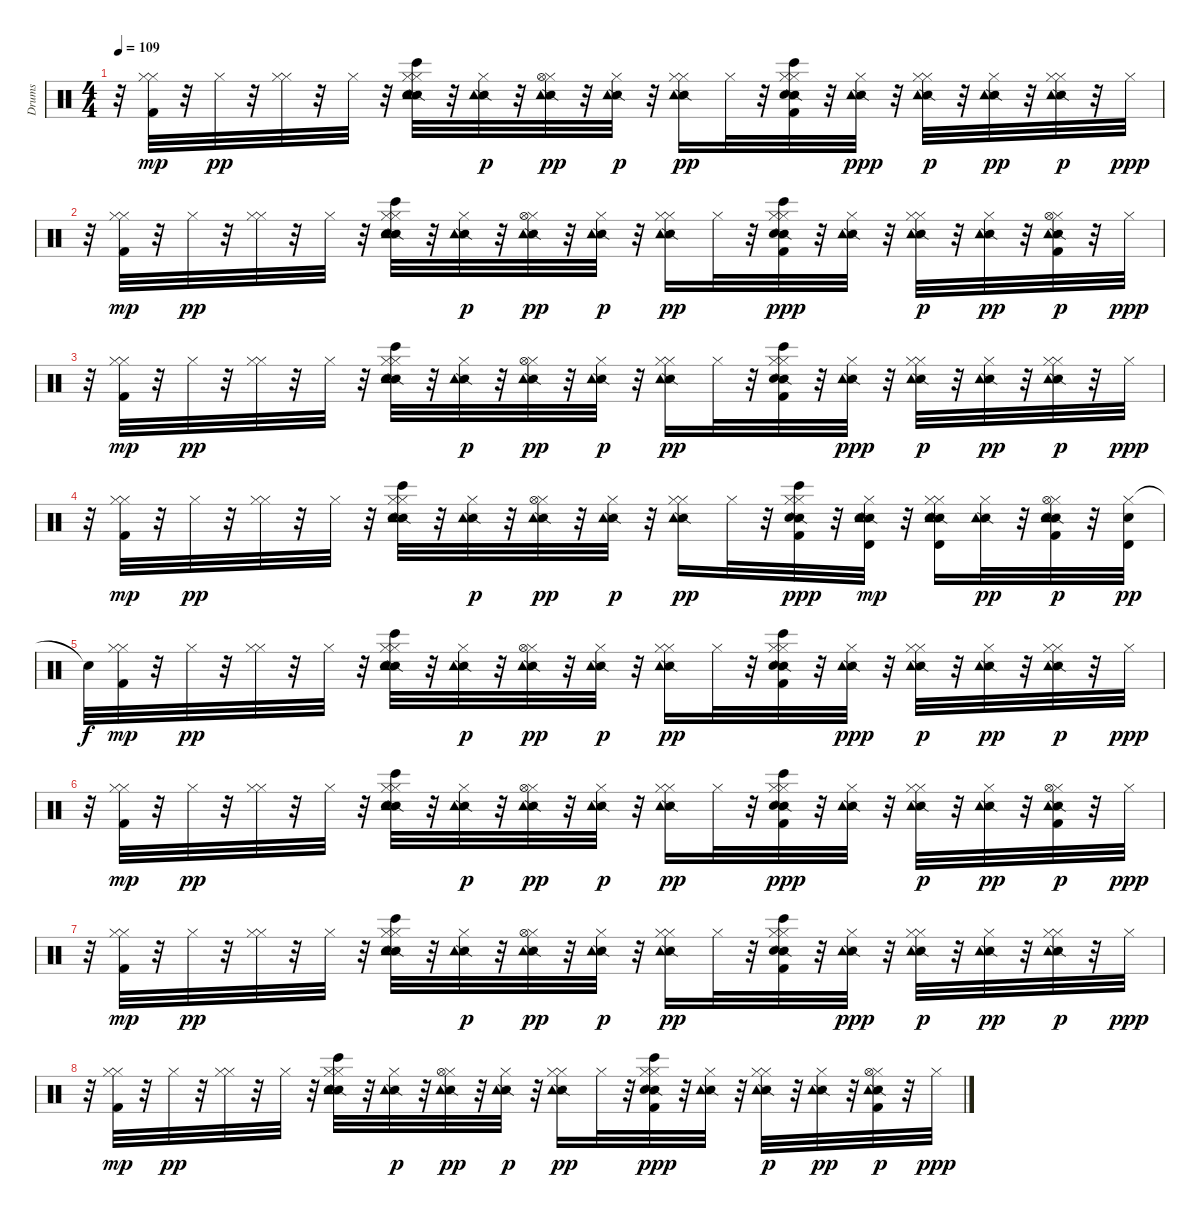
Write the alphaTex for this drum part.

\track ("Drums" "Drums") {instrument percussion}
\staff {score}
\articulation defaults
\ts (4 4)
\tempo 109
\clef neutral
\ks c
r.32{dy ppp} ("Kick (hit) 2" "Hi-Hat (closed)" "Hi-Hat (closed)").32{dy mp} r.32 "Hi-Hat (closed)".32{dy pp} r.32 ("Hi-Hat (closed)" "Hi-Hat (closed)").32 r.32 "Hi-Hat (closed)".32 r.32 ("Hi-Hat (closed)" "Bongo High (hit)" "Snare (side stick) 2" "Electric Snare (hit)" "Hi-Hat (closed)" "Tambourine (hit)").32 r.32 ("Hi-Hat (closed)" "Snare (side stick) 2" "Tambourine (hit)").32{dy p} r.32 ("Hi-Hat (closed)" "Snare (side stick) 2" "Hi-Hat (open)" "Tambourine (hit)").32{dy pp} r.32 ("Hi-Hat (closed)" "Snare (side stick) 2" "Tambourine (hit)").32{dy p} r.32 ("Hi-Hat (closed)" "Snare (side stick) 2" "Hi-Hat (closed)" "Tambourine (hit)").16{dy pp} "Hi-Hat (closed)".32 r.32 ("Kick (hit) 2" "Hi-Hat (closed)" "Bongo High (hit)" "Snare (side stick) 2" "Electric Snare (hit)" "Hi-Hat (closed)").32 r.32 ("Hi-Hat (closed)" "Snare (side stick) 2" "Tambourine (hit)").32{dy ppp} r.32 ("Hi-Hat (closed)" "Snare (side stick) 2" "Hi-Hat (closed)" "Tambourine (hit)").32{dy p} r.32 ("Hi-Hat (closed)" "Snare (side stick) 2" "Tambourine (hit)").32{dy pp} r.32 ("Hi-Hat (closed)" "Snare (side stick) 2" "Hi-Hat (closed)" "Tambourine (hit)").32{dy p} r.32 "Hi-Hat (closed)".32{dy ppp} |
r.32 ("Kick (hit) 2" "Hi-Hat (closed)" "Hi-Hat (closed)").32{dy mp} r.32 "Hi-Hat (closed)".32{dy pp} r.32 ("Hi-Hat (closed)" "Hi-Hat (closed)").32 r.32 "Hi-Hat (closed)".32 r.32 ("Hi-Hat (closed)" "Bongo High (hit)" "Snare (side stick) 2" "Electric Snare (hit)" "Hi-Hat (closed)" "Tambourine (hit)").32 r.32 ("Hi-Hat (closed)" "Snare (side stick) 2" "Tambourine (hit)").32{dy p} r.32 ("Hi-Hat (closed)" "Snare (side stick) 2" "Hi-Hat (open)" "Tambourine (hit)").32{dy pp} r.32 ("Hi-Hat (closed)" "Snare (side stick) 2" "Tambourine (hit)").32{dy p} r.32 ("Hi-Hat (closed)" "Snare (side stick) 2" "Hi-Hat (closed)" "Tambourine (hit)").16{dy pp} "Hi-Hat (closed)".32 r.32 ("Kick (hit) 2" "Hi-Hat (closed)" "Bongo High (hit)" "Snare (side stick) 2" "Electric Snare (hit)" "Hi-Hat (closed)").32{dy ppp} r.32 ("Hi-Hat (closed)" "Snare (side stick) 2" "Tambourine (hit)").32 r.32 ("Hi-Hat (closed)" "Snare (side stick) 2" "Hi-Hat (closed)" "Tambourine (hit)").32{dy p} r.32 ("Hi-Hat (closed)" "Snare (side stick) 2" "Tambourine (hit)").32{dy pp} r.32 ("Kick (hit) 2" "Hi-Hat (closed)" "Snare (side stick) 2" "Hi-Hat (open)" "Tambourine (hit)").32{dy p} r.32 "Hi-Hat (closed)".32{dy ppp} |
r.32 ("Kick (hit) 2" "Hi-Hat (closed)" "Hi-Hat (closed)").32{dy mp} r.32 "Hi-Hat (closed)".32{dy pp} r.32 ("Hi-Hat (closed)" "Hi-Hat (closed)").32 r.32 "Hi-Hat (closed)".32 r.32 ("Hi-Hat (closed)" "Bongo High (hit)" "Snare (side stick) 2" "Electric Snare (hit)" "Hi-Hat (closed)" "Tambourine (hit)").32 r.32 ("Hi-Hat (closed)" "Snare (side stick) 2" "Tambourine (hit)").32{dy p} r.32 ("Hi-Hat (closed)" "Snare (side stick) 2" "Hi-Hat (open)" "Tambourine (hit)").32{dy pp} r.32 ("Hi-Hat (closed)" "Snare (side stick) 2" "Tambourine (hit)").32{dy p} r.32 ("Hi-Hat (closed)" "Snare (side stick) 2" "Hi-Hat (closed)" "Tambourine (hit)").16{dy pp} "Hi-Hat (closed)".32 r.32 ("Kick (hit) 2" "Hi-Hat (closed)" "Bongo High (hit)" "Snare (side stick) 2" "Electric Snare (hit)" "Hi-Hat (closed)").32 r.32 ("Hi-Hat (closed)" "Snare (side stick) 2" "Tambourine (hit)").32{dy ppp} r.32 ("Hi-Hat (closed)" "Snare (side stick) 2" "Hi-Hat (closed)" "Tambourine (hit)").32{dy p} r.32 ("Hi-Hat (closed)" "Snare (side stick) 2" "Tambourine (hit)").32{dy pp} r.32 ("Hi-Hat (closed)" "Snare (side stick) 2" "Hi-Hat (closed)" "Tambourine (hit)").32{dy p} r.32 "Hi-Hat (closed)".32{dy ppp} |
r.32 ("Kick (hit) 2" "Hi-Hat (closed)" "Hi-Hat (closed)").32{dy mp} r.32 "Hi-Hat (closed)".32{dy pp} r.32 ("Hi-Hat (closed)" "Hi-Hat (closed)").32 r.32 "Hi-Hat (closed)".32 r.32 ("Hi-Hat (closed)" "Bongo High (hit)" "Snare (side stick) 2" "Electric Snare (hit)" "Hi-Hat (closed)" "Tambourine (hit)").32 r.32 ("Hi-Hat (closed)" "Snare (side stick) 2" "Tambourine (hit)").32{dy p} r.32 ("Hi-Hat (closed)" "Snare (side stick) 2" "Hi-Hat (open)" "Tambourine (hit)").32{dy pp} r.32 ("Hi-Hat (closed)" "Snare (side stick) 2" "Tambourine (hit)").32{dy p} r.32 ("Hi-Hat (closed)" "Snare (side stick) 2" "Hi-Hat (closed)" "Tambourine (hit)").16{dy pp} "Hi-Hat (closed)".32 r.32 ("Kick (hit) 2" "Hi-Hat (closed)" "Bongo High (hit)" "Snare (side stick) 2" "Electric Snare (hit)" "Hi-Hat (closed)").32{dy ppp} r.32 ("Hi-Hat (closed)" "Snare (side stick) 2" "Electric Snare (hit)" "Tambourine (hit)" "Timbale high (hit)").32{dy mp} r.32 ("Hi-Hat (closed)" "Snare (side stick) 2" "Electric Snare (hit)" "Hi-Hat (closed)" "Tambourine (hit)" "Timbale high (hit)").16 ("Hi-Hat (closed)" "Snare (side stick) 2" "Tambourine (hit)").32{dy pp} r.32 ("Kick (hit) 2" "Hi-Hat (closed)" "Snare (side stick) 2" "Electric Snare (hit)" "Hi-Hat (open)" "Tambourine (hit)").32{dy p} r.32 ("Hi-Hat (closed)" "Electric Snare (hit)" "Timbale high (hit)").32{dy pp} |
"Snare (hit)"{t}.32{dy f} ("Kick (hit) 2" "Hi-Hat (closed)" "Hi-Hat (closed)").32{dy mp} r.32 "Hi-Hat (closed)".32{dy pp} r.32 ("Hi-Hat (closed)" "Hi-Hat (closed)").32 r.32 "Hi-Hat (closed)".32 r.32 ("Hi-Hat (closed)" "Bongo High (hit)" "Snare (side stick) 2" "Electric Snare (hit)" "Hi-Hat (closed)" "Tambourine (hit)").32 r.32 ("Hi-Hat (closed)" "Snare (side stick) 2" "Tambourine (hit)").32{dy p} r.32 ("Hi-Hat (closed)" "Snare (side stick) 2" "Hi-Hat (open)" "Tambourine (hit)").32{dy pp} r.32 ("Hi-Hat (closed)" "Snare (side stick) 2" "Tambourine (hit)").32{dy p} r.32 ("Hi-Hat (closed)" "Snare (side stick) 2" "Hi-Hat (closed)" "Tambourine (hit)").16{dy pp} "Hi-Hat (closed)".32 r.32 ("Kick (hit) 2" "Hi-Hat (closed)" "Bongo High (hit)" "Snare (side stick) 2" "Electric Snare (hit)" "Hi-Hat (closed)").32 r.32 ("Hi-Hat (closed)" "Snare (side stick) 2" "Tambourine (hit)").32{dy ppp} r.32 ("Hi-Hat (closed)" "Snare (side stick) 2" "Hi-Hat (closed)" "Tambourine (hit)").32{dy p} r.32 ("Hi-Hat (closed)" "Snare (side stick) 2" "Tambourine (hit)").32{dy pp} r.32 ("Hi-Hat (closed)" "Snare (side stick) 2" "Hi-Hat (closed)" "Tambourine (hit)").32{dy p} r.32 "Hi-Hat (closed)".32{dy ppp} |
r.32 ("Kick (hit) 2" "Hi-Hat (closed)" "Hi-Hat (closed)").32{dy mp} r.32 "Hi-Hat (closed)".32{dy pp} r.32 ("Hi-Hat (closed)" "Hi-Hat (closed)").32 r.32 "Hi-Hat (closed)".32 r.32 ("Hi-Hat (closed)" "Bongo High (hit)" "Snare (side stick) 2" "Electric Snare (hit)" "Hi-Hat (closed)" "Tambourine (hit)").32 r.32 ("Hi-Hat (closed)" "Snare (side stick) 2" "Tambourine (hit)").32{dy p} r.32 ("Hi-Hat (closed)" "Snare (side stick) 2" "Hi-Hat (open)" "Tambourine (hit)").32{dy pp} r.32 ("Hi-Hat (closed)" "Snare (side stick) 2" "Tambourine (hit)").32{dy p} r.32 ("Hi-Hat (closed)" "Snare (side stick) 2" "Hi-Hat (closed)" "Tambourine (hit)").16{dy pp} "Hi-Hat (closed)".32 r.32 ("Kick (hit) 2" "Hi-Hat (closed)" "Bongo High (hit)" "Snare (side stick) 2" "Electric Snare (hit)" "Hi-Hat (closed)").32{dy ppp} r.32 ("Hi-Hat (closed)" "Snare (side stick) 2" "Tambourine (hit)").32 r.32 ("Hi-Hat (closed)" "Snare (side stick) 2" "Hi-Hat (closed)" "Tambourine (hit)").32{dy p} r.32 ("Hi-Hat (closed)" "Snare (side stick) 2" "Tambourine (hit)").32{dy pp} r.32 ("Kick (hit) 2" "Hi-Hat (closed)" "Snare (side stick) 2" "Hi-Hat (open)" "Tambourine (hit)").32{dy p} r.32 "Hi-Hat (closed)".32{dy ppp} |
r.32 ("Kick (hit) 2" "Hi-Hat (closed)" "Hi-Hat (closed)").32{dy mp} r.32 "Hi-Hat (closed)".32{dy pp} r.32 ("Hi-Hat (closed)" "Hi-Hat (closed)").32 r.32 "Hi-Hat (closed)".32 r.32 ("Hi-Hat (closed)" "Bongo High (hit)" "Snare (side stick) 2" "Electric Snare (hit)" "Hi-Hat (closed)" "Tambourine (hit)").32 r.32 ("Hi-Hat (closed)" "Snare (side stick) 2" "Tambourine (hit)").32{dy p} r.32 ("Hi-Hat (closed)" "Snare (side stick) 2" "Hi-Hat (open)" "Tambourine (hit)").32{dy pp} r.32 ("Hi-Hat (closed)" "Snare (side stick) 2" "Tambourine (hit)").32{dy p} r.32 ("Hi-Hat (closed)" "Snare (side stick) 2" "Hi-Hat (closed)" "Tambourine (hit)").16{dy pp} "Hi-Hat (closed)".32 r.32 ("Kick (hit) 2" "Hi-Hat (closed)" "Bongo High (hit)" "Snare (side stick) 2" "Electric Snare (hit)" "Hi-Hat (closed)").32 r.32 ("Hi-Hat (closed)" "Snare (side stick) 2" "Tambourine (hit)").32{dy ppp} r.32 ("Hi-Hat (closed)" "Snare (side stick) 2" "Hi-Hat (closed)" "Tambourine (hit)").32{dy p} r.32 ("Hi-Hat (closed)" "Snare (side stick) 2" "Tambourine (hit)").32{dy pp} r.32 ("Hi-Hat (closed)" "Snare (side stick) 2" "Hi-Hat (closed)" "Tambourine (hit)").32{dy p} r.32 "Hi-Hat (closed)".32{dy ppp} |
r.32 ("Kick (hit) 2" "Hi-Hat (closed)" "Hi-Hat (closed)").32{dy mp} r.32 "Hi-Hat (closed)".32{dy pp} r.32 ("Hi-Hat (closed)" "Hi-Hat (closed)").32 r.32 "Hi-Hat (closed)".32 r.32 ("Hi-Hat (closed)" "Bongo High (hit)" "Snare (side stick) 2" "Electric Snare (hit)" "Hi-Hat (closed)" "Tambourine (hit)").32 r.32 ("Hi-Hat (closed)" "Snare (side stick) 2" "Tambourine (hit)").32{dy p} r.32 ("Hi-Hat (closed)" "Snare (side stick) 2" "Hi-Hat (open)" "Tambourine (hit)").32{dy pp} r.32 ("Hi-Hat (closed)" "Snare (side stick) 2" "Tambourine (hit)").32{dy p} r.32 ("Hi-Hat (closed)" "Snare (side stick) 2" "Hi-Hat (closed)" "Tambourine (hit)").16{dy pp} "Hi-Hat (closed)".32 r.32 ("Kick (hit) 2" "Hi-Hat (closed)" "Bongo High (hit)" "Snare (side stick) 2" "Electric Snare (hit)" "Hi-Hat (closed)").32{dy ppp} r.32 ("Hi-Hat (closed)" "Snare (side stick) 2" "Tambourine (hit)").32 r.32 ("Hi-Hat (closed)" "Snare (side stick) 2" "Hi-Hat (closed)" "Tambourine (hit)").32{dy p} r.32 ("Hi-Hat (closed)" "Snare (side stick) 2" "Tambourine (hit)").32{dy pp} r.32 ("Kick (hit) 2" "Hi-Hat (closed)" "Snare (side stick) 2" "Hi-Hat (open)" "Tambourine (hit)").32{dy p} r.32 "Hi-Hat (closed)".32{dy ppp}
